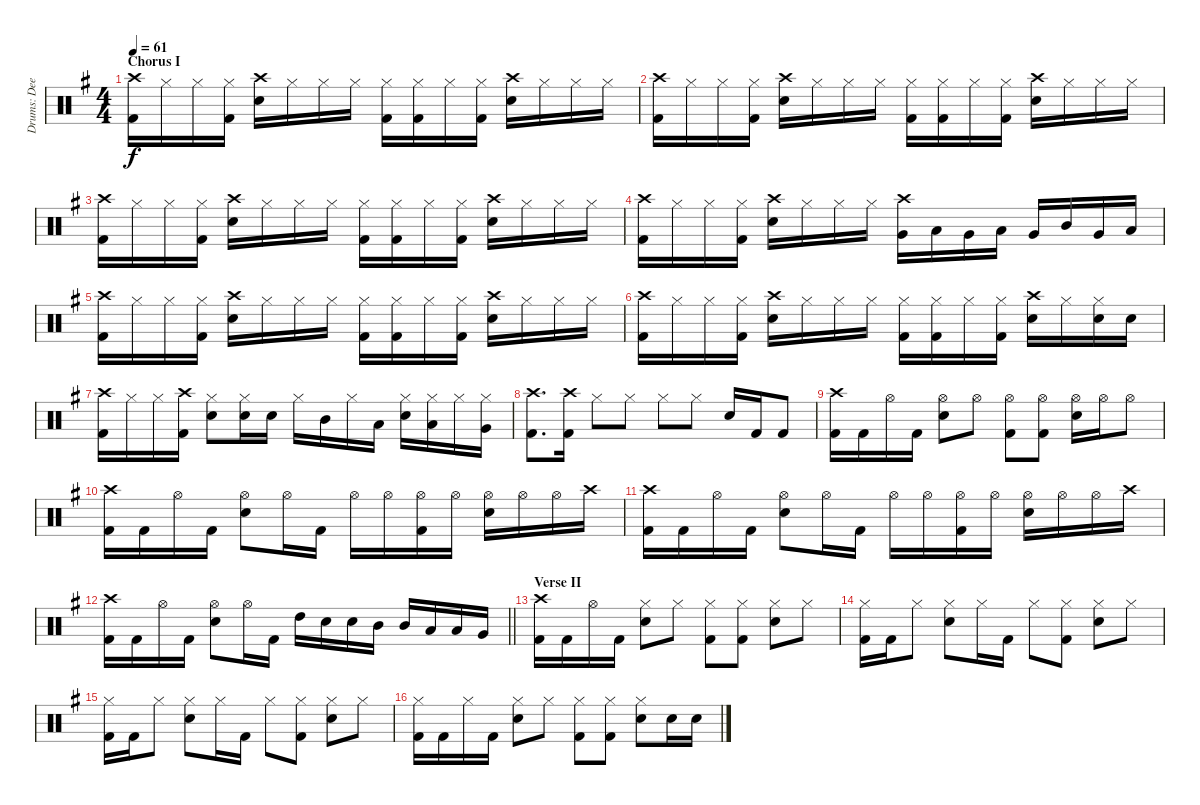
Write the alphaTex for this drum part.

\track ("Drums: Deen" "Drums: Dee") {instrument percussion}
\staff {score}
\articulation defaults
\ts (4 4)
\section ("" "Chorus I")
\tempo 61
\clef neutral
\ks g
("Crash high (hit)" "Kick (hit) 2").16{dy f} "Hi-Hat (closed)".16 "Hi-Hat (closed)".16 ("Hi-Hat (closed)" "Kick (hit) 2").16 ("Crash high (hit)" "Electric Snare (hit)").16 "Hi-Hat (closed)".16 "Hi-Hat (closed)".16 "Hi-Hat (closed)".16 ("Hi-Hat (closed)" "Kick (hit) 2").16 ("Hi-Hat (closed)" "Kick (hit) 2").16 "Hi-Hat (closed)".16 ("Hi-Hat (closed)" "Kick (hit) 2").16 ("Crash high (hit)" "Electric Snare (hit)").16 "Hi-Hat (closed)".16 "Hi-Hat (closed)".16 "Hi-Hat (closed)".16 |
("Crash high (hit)" "Kick (hit) 2").16 "Hi-Hat (closed)".16 "Hi-Hat (closed)".16 ("Hi-Hat (closed)" "Kick (hit) 2").16 ("Crash high (hit)" "Electric Snare (hit)").16 "Hi-Hat (closed)".16 "Hi-Hat (closed)".16 "Hi-Hat (closed)".16 ("Hi-Hat (closed)" "Kick (hit) 2").16 ("Hi-Hat (closed)" "Kick (hit) 2").16 "Hi-Hat (closed)".16 ("Hi-Hat (closed)" "Kick (hit) 2").16 ("Crash high (hit)" "Electric Snare (hit)").16 "Hi-Hat (closed)".16 "Hi-Hat (closed)".16 "Hi-Hat (closed)".16 |
("Crash high (hit)" "Kick (hit) 2").16 "Hi-Hat (closed)".16 "Hi-Hat (closed)".16 ("Hi-Hat (closed)" "Kick (hit) 2").16 ("Crash high (hit)" "Electric Snare (hit)").16 "Hi-Hat (closed)".16 "Hi-Hat (closed)".16 "Hi-Hat (closed)".16 ("Hi-Hat (closed)" "Kick (hit) 2").16 ("Hi-Hat (closed)" "Kick (hit) 2").16 "Hi-Hat (closed)".16 ("Hi-Hat (closed)" "Kick (hit) 2").16 ("Crash high (hit)" "Electric Snare (hit)").16 "Hi-Hat (closed)".16 "Hi-Hat (closed)".16 "Hi-Hat (closed)".16 |
("Crash high (hit)" "Kick (hit) 2").16 "Hi-Hat (closed)".16 "Hi-Hat (closed)".16 ("Hi-Hat (closed)" "Kick (hit) 2").16 ("Crash high (hit)" "Electric Snare (hit)").16 "Hi-Hat (closed)".16 "Hi-Hat (closed)".16 "Hi-Hat (closed)".16 ("Crash high (hit)" "Very Low Tom (hit)").16 "Low Tom (hit)".16 "Very Low Tom (hit)".16 "Low Tom (hit)".16 "Very Low Tom (hit)".16 "Mid Tom (hit)".16 "Very Low Tom (hit)".16 "Low Tom (hit)".16 |
("Crash high (hit)" "Kick (hit) 2").16 "Hi-Hat (closed)".16 "Hi-Hat (closed)".16 ("Hi-Hat (closed)" "Kick (hit) 2").16 ("Crash high (hit)" "Electric Snare (hit)").16 "Hi-Hat (closed)".16 "Hi-Hat (closed)".16 "Hi-Hat (closed)".16 ("Hi-Hat (closed)" "Kick (hit) 2").16 ("Hi-Hat (closed)" "Kick (hit) 2").16 "Hi-Hat (closed)".16 ("Hi-Hat (closed)" "Kick (hit) 2").16 ("Crash high (hit)" "Electric Snare (hit)").16 "Hi-Hat (closed)".16 "Hi-Hat (closed)".16 "Hi-Hat (closed)".16 |
("Crash high (hit)" "Kick (hit) 2").16 "Hi-Hat (closed)".16 "Hi-Hat (closed)".16 ("Hi-Hat (closed)" "Kick (hit) 2").16 ("Crash high (hit)" "Electric Snare (hit)").16 "Hi-Hat (closed)".16 "Hi-Hat (closed)".16 "Hi-Hat (closed)".16 ("Hi-Hat (closed)" "Kick (hit) 2").16 ("Hi-Hat (closed)" "Kick (hit) 2").16 "Hi-Hat (closed)".16 ("Hi-Hat (closed)" "Kick (hit) 2").16 ("Crash high (hit)" "Electric Snare (hit)").16 "Hi-Hat (closed)".16 ("Hi-Hat (closed)" "Electric Snare (hit)").16 "Electric Snare (hit)".16 |
("Crash high (hit)" "Kick (hit) 2").16 "Hi-Hat (closed)".16 "Hi-Hat (closed)".16 ("Crash high (hit)" "Kick (hit) 2").16 ("Hi-Hat (closed)" "Electric Snare (hit)").8 ("Hi-Hat (closed)" "Electric Snare (hit)").16 "Electric Snare (hit)".16 "Hi-Hat (closed)".16 "Mid Tom (hit)".16 "Hi-Hat (closed)".16 "Low Tom (hit)".16 ("Hi-Hat (closed)" "Electric Snare (hit)").16 ("Hi-Hat (closed)" "Low Tom (hit)").16 "Hi-Hat (closed)".16 ("Hi-Hat (closed)" "Very Low Tom (hit)").16 |
("Crash high (hit)" "Kick (hit) 2").8{d} ("Crash high (hit)" "Kick (hit) 2").16 "Hi-Hat (closed)".8 "Hi-Hat (closed)".8 "Hi-Hat (closed)".8 "Hi-Hat (closed)".8 "Electric Snare (hit)".16 "Kick (hit) 2".16 "Kick (hit) 2".8 |
("Crash high (hit)" "Kick (hit) 2").16 "Kick (hit) 2".16 "Hi-Hat (open)".16 "Kick (hit) 2".16 ("Hi-Hat (open)" "Electric Snare (hit)").8 "Hi-Hat (open)".8 ("Hi-Hat (open)" "Kick (hit) 2").8 ("Hi-Hat (open)" "Kick (hit) 2").8 ("Hi-Hat (open)" "Electric Snare (hit)").16 "Hi-Hat (open)".16 "Hi-Hat (open)".8 |
("Crash high (hit)" "Kick (hit) 2").16 "Kick (hit) 2".16 "Hi-Hat (open)".16 "Kick (hit) 2".16 ("Hi-Hat (open)" "Electric Snare (hit)").8 "Hi-Hat (open)".16 "Kick (hit) 2".16 "Hi-Hat (open)".16 "Hi-Hat (open)".16 ("Hi-Hat (open)" "Kick (hit) 2").16 "Hi-Hat (open)".16 ("Hi-Hat (open)" "Electric Snare (hit)").16 "Hi-Hat (open)".16 "Hi-Hat (open)".16 "Crash high (hit)".16 |
("Crash high (hit)" "Kick (hit) 2").16 "Kick (hit) 2".16 "Hi-Hat (open)".16 "Kick (hit) 2".16 ("Hi-Hat (open)" "Electric Snare (hit)").8 "Hi-Hat (open)".16 "Kick (hit) 2".16 "Hi-Hat (open)".16 "Hi-Hat (open)".16 ("Hi-Hat (open)" "Kick (hit) 2").16 "Hi-Hat (open)".16 ("Hi-Hat (open)" "Electric Snare (hit)").16 "Hi-Hat (open)".16 "Hi-Hat (open)".16 "Crash high (hit)".16 |
\barLineRight lightlight
("Crash high (hit)" "Kick (hit) 2").16 "Kick (hit) 2".16 "Hi-Hat (open)".16 "Kick (hit) 2".16 ("Hi-Hat (open)" "Electric Snare (hit)").8 "Hi-Hat (open)".16 "Kick (hit) 2".16 "High Tom (hit)".16 "Electric Snare (hit)".16 "Electric Snare (hit)".16 "Mid Tom (hit)".16 "Mid Tom (hit)".16 "Low Tom (hit)".16 "Low Tom (hit)".16 "Very Low Tom (hit)".16 |
\section ("" "Verse II")
("Crash high (hit)" "Kick (hit) 2").16 "Kick (hit) 2".16 "Hi-Hat (open)".16 "Kick (hit) 2".16 ("Hi-Hat (closed)" "Electric Snare (hit)").8 "Hi-Hat (closed)".8 ("Hi-Hat (closed)" "Kick (hit) 2").8 ("Hi-Hat (closed)" "Kick (hit) 2").8 ("Hi-Hat (closed)" "Electric Snare (hit)").8 "Hi-Hat (closed)".8 |
("Hi-Hat (closed)" "Kick (hit) 2").16 "Kick (hit) 2".16 "Hi-Hat (closed)".8 ("Hi-Hat (closed)" "Electric Snare (hit)").8 "Hi-Hat (closed)".16 "Kick (hit) 2".16 "Hi-Hat (closed)".8 ("Hi-Hat (closed)" "Kick (hit) 2").8 ("Hi-Hat (closed)" "Electric Snare (hit)").8 "Hi-Hat (closed)".8 |
("Hi-Hat (closed)" "Kick (hit) 2").16 "Kick (hit) 2".16 "Hi-Hat (closed)".8 ("Hi-Hat (closed)" "Electric Snare (hit)").8 "Hi-Hat (closed)".16 "Kick (hit) 2".16 "Hi-Hat (closed)".8 ("Hi-Hat (closed)" "Kick (hit) 2").8 ("Hi-Hat (closed)" "Electric Snare (hit)").8 "Hi-Hat (closed)".8 |
("Hi-Hat (closed)" "Kick (hit) 2").16 "Kick (hit) 2".16 "Hi-Hat (closed)".16 "Kick (hit) 2".16 ("Hi-Hat (closed)" "Electric Snare (hit)").8 "Hi-Hat (closed)".8 ("Hi-Hat (closed)" "Kick (hit) 2").8 ("Hi-Hat (closed)" "Kick (hit) 2").8 ("Hi-Hat (closed)" "Electric Snare (hit)").8 "Electric Snare (hit)".16 "Electric Snare (hit)".16
